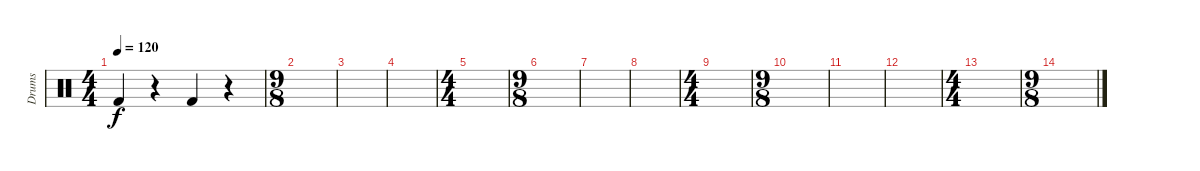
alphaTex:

\track ("Drums" "Drums") {instrument percussion}
\staff {score}
\articulation defaults
\ts (4 4)
\tempo 120
\clef neutral
\ks c "Kick (hit) 2".4{dy f}
r.4 "Kick (hit) 2".4 r.4 |
\ts (9 8)
|
|
|
\ts (4 4)
|
\ts (9 8)
|
|
|
\ts (4 4)
|
\ts (9 8)
|
|
|
\ts (4 4)
|
\ts (9 8)
